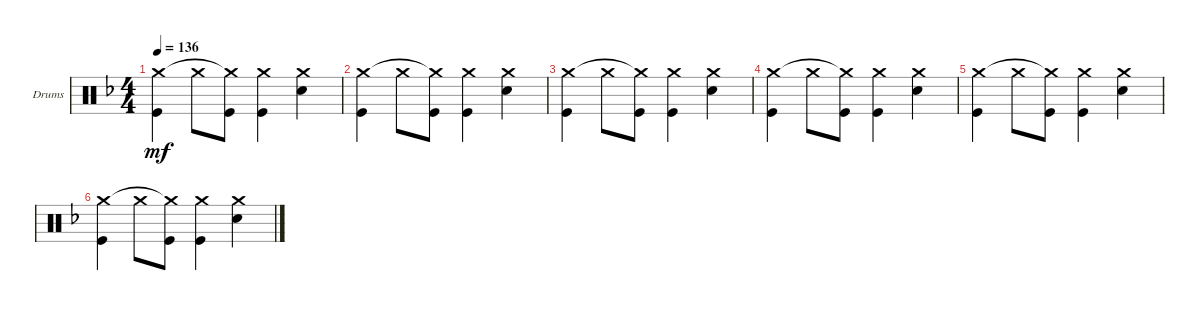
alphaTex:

\bracketExtendMode groupsimilarinstruments
\firstSystemTrackNameOrientation horizontal
\otherSystemsTrackNameOrientation horizontal
\track ("Drumkit" "Drums") {instrument percussion}
\staff {score}
\articulation defaults
\ts (4 4)
\tempo 136
\clef neutral
\scale
0.333333
\ks f
("Kick (hit)" "Crash medium (hit)").4{dy mf} "Crash medium (hit)".8 ("Kick (hit)" "Crash medium (hit)"{t}).8 ("Kick (hit)" "Crash medium (hit)").4 ("Snare (hit) 2" "Crash medium (hit)").4 |
\scale
0.333333 ("Kick (hit)" "Crash medium (hit)").4 "Crash medium (hit)".8 ("Kick (hit)" "Crash medium (hit)"{t}).8 ("Kick (hit)" "Crash medium (hit)").4 ("Snare (hit) 2" "Crash medium (hit)").4 |
\scale
0.333333 ("Kick (hit)" "Crash medium (hit)").4 "Crash medium (hit)".8 ("Kick (hit)" "Crash medium (hit)"{t}).8 ("Kick (hit)" "Crash medium (hit)").4 ("Snare (hit) 2" "Crash medium (hit)").4 |
\scale
0.333333 ("Kick (hit)" "Crash medium (hit)").4 "Crash medium (hit)".8 ("Kick (hit)" "Crash medium (hit)"{t}).8 ("Kick (hit)" "Crash medium (hit)").4 ("Snare (hit) 2" "Crash medium (hit)").4 |
("Kick (hit)" "Crash medium (hit)").4 "Crash medium (hit)".8 ("Kick (hit)" "Crash medium (hit)"{t}).8 ("Kick (hit)" "Crash medium (hit)").4 ("Snare (hit) 2" "Crash medium (hit)").4 |
("Kick (hit)" "Crash medium (hit)").4 "Crash medium (hit)".8 ("Kick (hit)" "Crash medium (hit)"{t}).8 ("Kick (hit)" "Crash medium (hit)").4 ("Snare (hit) 2" "Crash medium (hit)").4
